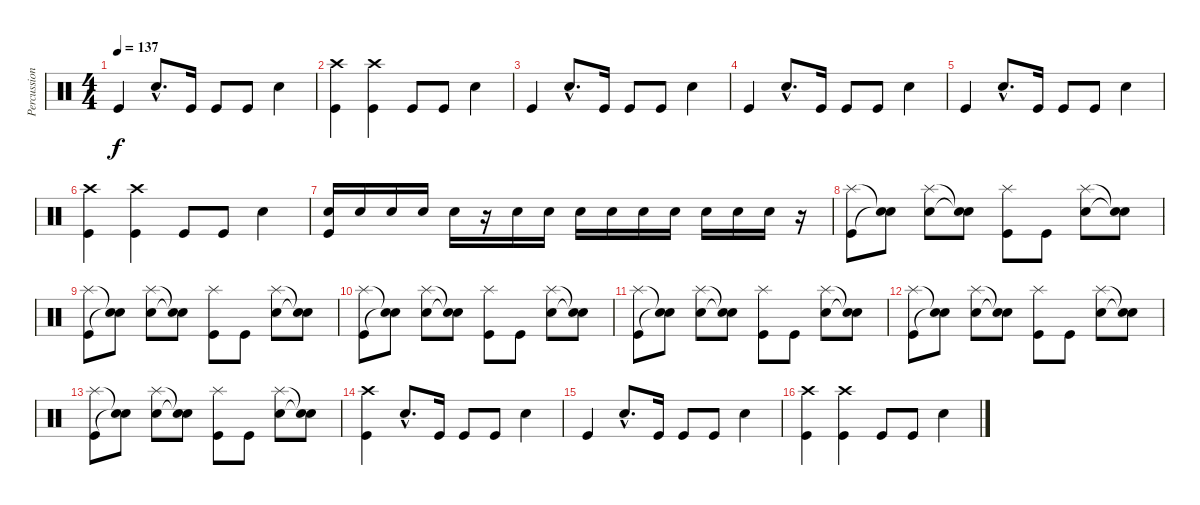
\track ("Percussion" "Percussion") {instrument percussion}
\staff {score}
\articulation defaults
\ts (4 4)
\tempo 137
\clef neutral
\ks c "Kick (hit)".4{dy f} "Snare (hit) 2"{hac}.8{d} "Kick (hit)".16 "Kick (hit)".8 "Kick (hit)".8 "Snare (hit) 2".4
|
("Crash high (hit)" "Kick (hit)").4 ("Crash high (hit)" "Kick (hit)").4 "Kick (hit)".8 "Kick (hit)".8 "Snare (hit) 2".4 |
"Kick (hit)".4 "Snare (hit) 2"{hac}.8{d} "Kick (hit)".16 "Kick (hit)".8 "Kick (hit)".8 "Snare (hit) 2".4 |
"Kick (hit)".4 "Snare (hit) 2"{hac}.8{d} "Kick (hit)".16 "Kick (hit)".8 "Kick (hit)".8 "Snare (hit) 2".4 |
"Kick (hit)".4 "Snare (hit) 2"{hac}.8{d} "Kick (hit)".16 "Kick (hit)".8 "Kick (hit)".8 "Snare (hit) 2".4 |
("Crash high (hit)" "Kick (hit)").4 ("Crash high (hit)" "Kick (hit)").4 "Kick (hit)".8 "Kick (hit)".8 "Snare (hit) 2".4 |
("Snare (hit) 2" "Kick (hit)").16 "Snare (hit) 2".16 "Snare (hit) 2".16 "Snare (hit) 2".16 "Snare (hit) 2".16 r.16 "Snare (hit) 2".16 "Snare (hit) 2".16 "Snare (hit) 2".16 "Snare (hit) 2".16 "Snare (hit) 2".16 "Snare (hit) 2".16 "Snare (hit) 2".16 "Snare (hit) 2".16 "Snare (hit) 2".16 r.16 |
("Splash (hit)" "Kick (hit)").8 ("Snare (hit)"{t} "Snare (hit)"{t}).8 ("Splash (hit)" "Snare (hit) 2").8 ("Snare (hit)"{t} "Snare (hit)"{t}).8 ("Splash (hit)" "Kick (hit)").8 "Kick (hit)".8 ("Splash (hit)" "Snare (hit) 2").8 ("Snare (hit)"{t} "Snare (hit)"{t}).8 |
("Splash (hit)" "Kick (hit)").8 ("Snare (hit)"{t} "Snare (hit)"{t}).8 ("Splash (hit)" "Snare (hit) 2").8 ("Snare (hit)"{t} "Snare (hit)"{t}).8 ("Splash (hit)" "Kick (hit)").8 "Kick (hit)".8 ("Splash (hit)" "Snare (hit) 2").8 ("Snare (hit)"{t} "Snare (hit)"{t}).8 |
("Splash (hit)" "Kick (hit)").8 ("Snare (hit)"{t} "Snare (hit)"{t}).8 ("Splash (hit)" "Snare (hit) 2").8 ("Snare (hit)"{t} "Snare (hit)"{t}).8 ("Splash (hit)" "Kick (hit)").8 "Kick (hit)".8 ("Splash (hit)" "Snare (hit) 2").8 ("Snare (hit)"{t} "Snare (hit)"{t}).8 |
("Splash (hit)" "Kick (hit)").8 ("Snare (hit)"{t} "Snare (hit)"{t}).8 ("Splash (hit)" "Snare (hit) 2").8 ("Snare (hit)"{t} "Snare (hit)"{t}).8 ("Splash (hit)" "Kick (hit)").8 "Kick (hit)".8 ("Splash (hit)" "Snare (hit) 2").8 ("Snare (hit)"{t} "Snare (hit)"{t}).8 |
("Splash (hit)" "Kick (hit)").8 ("Snare (hit)"{t} "Snare (hit)"{t}).8 ("Splash (hit)" "Snare (hit) 2").8 ("Snare (hit)"{t} "Snare (hit)"{t}).8 ("Splash (hit)" "Kick (hit)").8 "Kick (hit)".8 ("Splash (hit)" "Snare (hit) 2").8 ("Snare (hit)"{t} "Snare (hit)"{t}).8 |
("Splash (hit)" "Kick (hit)").8 ("Snare (hit)"{t} "Snare (hit)"{t}).8 ("Splash (hit)" "Snare (hit) 2").8 ("Snare (hit)"{t} "Snare (hit)"{t}).8 ("Splash (hit)" "Kick (hit)").8 "Kick (hit)".8 ("Splash (hit)" "Snare (hit) 2").8 ("Snare (hit)"{t} "Snare (hit)"{t}).8 |
("Crash high (hit)" "Kick (hit)").4 "Snare (hit) 2"{hac}.8{d} "Kick (hit)".16 "Kick (hit)".8 "Kick (hit)".8 "Snare (hit) 2".4 |
"Kick (hit)".4 "Snare (hit) 2"{hac}.8{d} "Kick (hit)".16 "Kick (hit)".8 "Kick (hit)".8 "Snare (hit) 2".4 |
("Crash high (hit)" "Kick (hit)").4 ("Crash high (hit)" "Kick (hit)").4 "Kick (hit)".8 "Kick (hit)".8 "Snare (hit) 2".4
